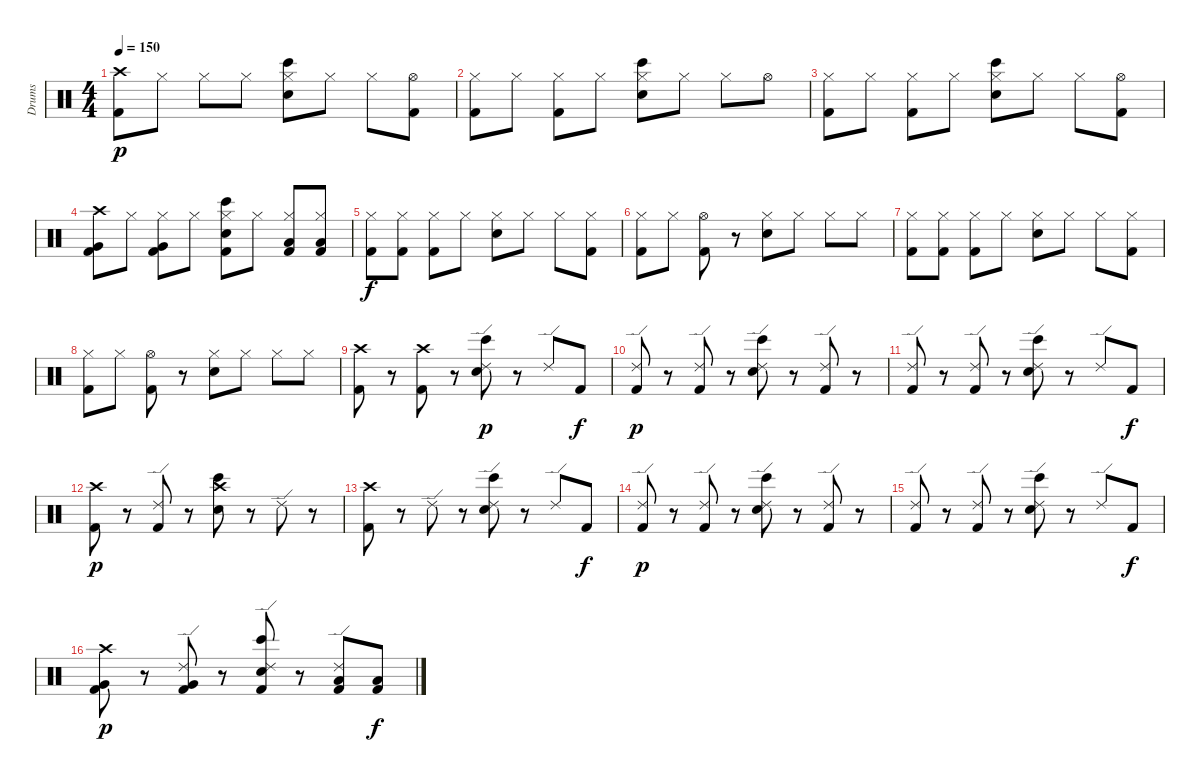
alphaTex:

\track ("Drums" "Drums") {instrument percussion}
\staff {score}
\articulation defaults
\ts (4 4)
\tempo 150
\clef neutral
\ks c
("Crash high (hit)" "Kick (hit) 2").8{dy p} "Hi-Hat (closed)".8 "Hi-Hat (closed)".8 "Hi-Hat (closed)".8 ("Hi-Hat (closed)" "Bongo High (hit)" "Electric Snare (hit)").8 "Hi-Hat (closed)".8 "Hi-Hat (closed)".8 ("Hi-Hat (open)" "Kick (hit) 2").8 |
("Hi-Hat (closed)" "Kick (hit) 2").8 "Hi-Hat (closed)".8 ("Hi-Hat (closed)" "Kick (hit) 2").8 "Hi-Hat (closed)".8 ("Hi-Hat (closed)" "Bongo High (hit)" "Electric Snare (hit)").8 "Hi-Hat (closed)".8 "Hi-Hat (closed)".8 "Hi-Hat (open)".8 |
("Hi-Hat (closed)" "Kick (hit) 2").8 "Hi-Hat (closed)".8 ("Hi-Hat (closed)" "Kick (hit) 2").8 "Hi-Hat (closed)".8 ("Hi-Hat (closed)" "Bongo High (hit)" "Electric Snare (hit)").8 "Hi-Hat (closed)".8 "Hi-Hat (closed)".8 ("Hi-Hat (open)" "Kick (hit) 2").8 |
("Crash high (hit)" "Very Low Tom (hit)" "Kick (hit) 2").8 "Hi-Hat (closed)".8 ("Hi-Hat (closed)" "Very Low Tom (hit)" "Kick (hit) 2").8 "Hi-Hat (closed)".8 ("Hi-Hat (closed)" "Bongo High (hit)" "Electric Snare (hit)" "Kick (hit) 2").8 "Hi-Hat (closed)".8 ("Hi-Hat (closed)" "Low Tom (hit)" "Kick (hit) 2").8 ("Hi-Hat (closed)" "Low Tom (hit)" "Kick (hit) 2").8 |
("Hi-Hat (closed)" "Kick (hit) 2").8{dy f} ("Hi-Hat (closed)" "Kick (hit) 2").8 ("Hi-Hat (closed)" "Kick (hit) 2").8 "Hi-Hat (closed)".8 ("Hi-Hat (closed)" "Electric Snare (hit)").8 "Hi-Hat (closed)".8 "Hi-Hat (closed)".8 ("Hi-Hat (closed)" "Kick (hit) 2").8 |
("Hi-Hat (closed)" "Kick (hit) 2").8 "Hi-Hat (closed)".8 ("Hi-Hat (open)" "Kick (hit) 2").8 r.8 ("Hi-Hat (closed)" "Electric Snare (hit)").8 "Hi-Hat (closed)".8 "Hi-Hat (closed)".8 "Hi-Hat (closed)".8 |
("Hi-Hat (closed)" "Kick (hit) 2").8 ("Hi-Hat (closed)" "Kick (hit) 2").8 ("Hi-Hat (closed)" "Kick (hit) 2").8 "Hi-Hat (closed)".8 ("Hi-Hat (closed)" "Electric Snare (hit)").8 "Hi-Hat (closed)".8 "Hi-Hat (closed)".8 ("Hi-Hat (closed)" "Kick (hit) 2").8 |
("Hi-Hat (closed)" "Kick (hit) 2").8 "Hi-Hat (closed)".8 ("Hi-Hat (open)" "Kick (hit) 2").8 r.8 ("Hi-Hat (closed)" "Electric Snare (hit)").8 "Hi-Hat (closed)".8 "Hi-Hat (closed)".8 "Hi-Hat (closed)".8 |
("Crash high (hit)" "Kick (hit) 2").8 r.8 ("Crash high (hit)" "Kick (hit) 2").8 r.8 ("Ride (edge) 2" "Bongo High (hit)" "Electric Snare (hit)").8{dy p} r.8 "Ride (edge) 2".8 "Kick (hit) 2".8{dy f} |
("Ride (edge) 2" "Kick (hit) 2").8{dy p} r.8 ("Ride (edge) 2" "Kick (hit) 2").8 r.8 ("Ride (edge) 2" "Bongo High (hit)" "Electric Snare (hit)").8 r.8 ("Ride (edge) 2" "Kick (hit) 2").8 r.8 |
("Ride (edge) 2" "Kick (hit) 2").8 r.8 ("Ride (edge) 2" "Kick (hit) 2").8 r.8 ("Ride (edge) 2" "Bongo High (hit)" "Electric Snare (hit)").8 r.8 "Ride (edge) 2".8 "Kick (hit) 2".8{dy f} |
("Crash high (hit)" "Kick (hit) 2").8{dy p} r.8 ("Ride (edge) 2" "Kick (hit) 2").8 r.8 ("Crash high (hit)" "Bongo High (hit)" "Electric Snare (hit)").8 r.8 "Ride (edge) 2".8 r.8 |
("Crash high (hit)" "Kick (hit) 2").8 r.8 "Ride (edge) 2".8 r.8 ("Ride (edge) 2" "Bongo High (hit)" "Electric Snare (hit)").8 r.8 "Ride (edge) 2".8 "Kick (hit) 2".8{dy f} |
("Ride (edge) 2" "Kick (hit) 2").8{dy p} r.8 ("Ride (edge) 2" "Kick (hit) 2").8 r.8 ("Ride (edge) 2" "Bongo High (hit)" "Electric Snare (hit)").8 r.8 ("Ride (edge) 2" "Kick (hit) 2").8 r.8 |
("Ride (edge) 2" "Kick (hit) 2").8 r.8 ("Ride (edge) 2" "Kick (hit) 2").8 r.8 ("Ride (edge) 2" "Bongo High (hit)" "Electric Snare (hit)").8 r.8 "Ride (edge) 2".8 "Kick (hit) 2".8{dy f} |
("Crash high (hit)" "Very Low Tom (hit)" "Kick (hit) 2").8{dy p} r.8 ("Ride (edge) 2" "Very Low Tom (hit)" "Kick (hit) 2").8 r.8 ("Ride (edge) 2" "Bongo High (hit)" "Electric Snare (hit)" "Kick (hit) 2").8 r.8 ("Ride (edge) 2" "Low Tom (hit)" "Kick (hit) 2").8 ("Low Tom (hit)" "Kick (hit) 2").8{dy f}
